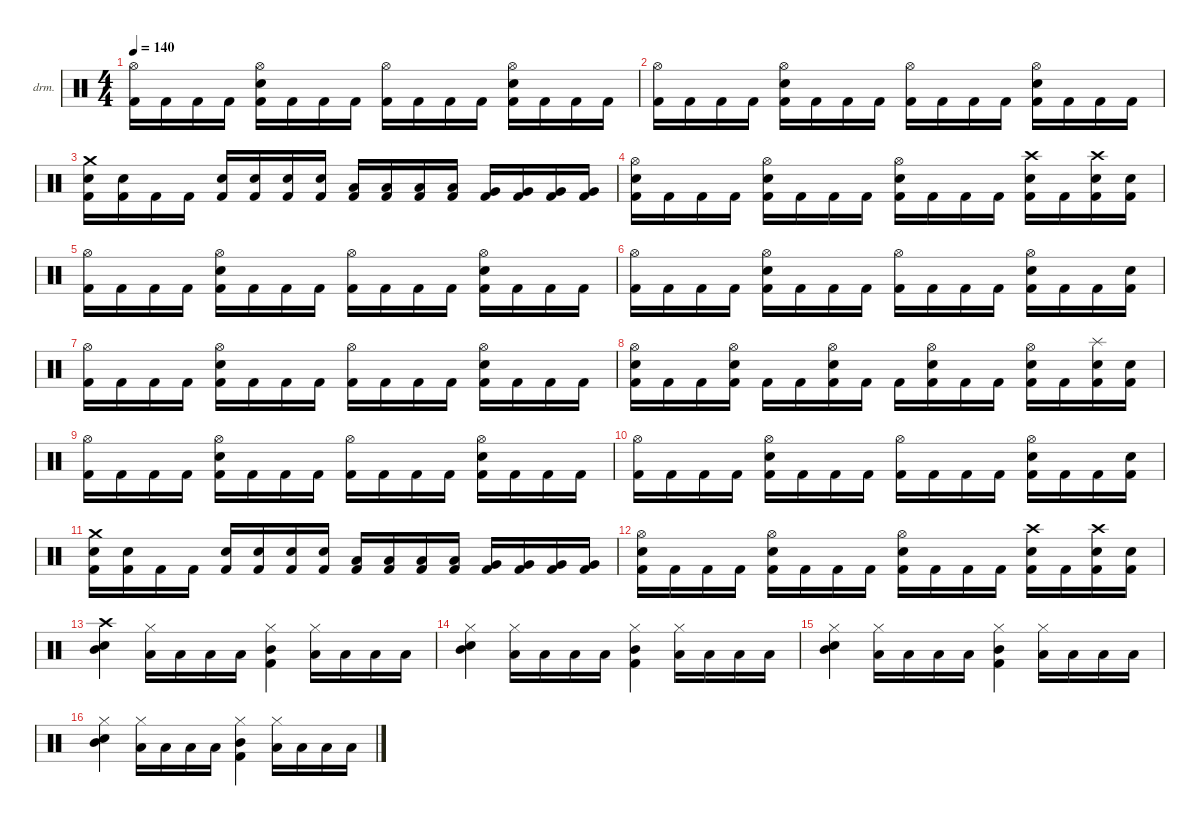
\defaultSystemsLayout 4
\hideDynamics
\bracketExtendMode nobrackets
\firstSystemTrackNameOrientation horizontal
\otherSystemsTrackNameOrientation horizontal
\track ("Drumkit" "drm.") {instrument percussion}
\staff {score}
\articulation defaults
\ts (4 4)
\tempo 140
\clef neutral
\ks c
("Hi-Hat (open)" "Kick (hit) 2").16{dy ff} "Kick (hit) 2".16 "Kick (hit) 2".16 "Kick (hit) 2".16 ("Hi-Hat (open)" "Snare (hit) 2" "Kick (hit) 2").16 "Kick (hit) 2".16 "Kick (hit) 2".16 "Kick (hit) 2".16 ("Hi-Hat (open)" "Kick (hit) 2").16 "Kick (hit) 2".16 "Kick (hit) 2".16 "Kick (hit) 2".16 ("Hi-Hat (open)" "Snare (hit) 2" "Kick (hit) 2").16 "Kick (hit) 2".16 "Kick (hit) 2".16 "Kick (hit) 2".16 |
("Hi-Hat (open)" "Kick (hit) 2").16 "Kick (hit) 2".16 "Kick (hit) 2".16 "Kick (hit) 2".16 ("Hi-Hat (open)" "Snare (hit) 2" "Kick (hit) 2").16 "Kick (hit) 2".16 "Kick (hit) 2".16 "Kick (hit) 2".16 ("Hi-Hat (open)" "Kick (hit) 2").16 "Kick (hit) 2".16 "Kick (hit) 2".16 "Kick (hit) 2".16 ("Hi-Hat (open)" "Snare (hit) 2" "Kick (hit) 2").16 "Kick (hit) 2".16 "Kick (hit) 2".16 "Kick (hit) 2".16 |
("Crash medium (hit)" "Snare (hit) 2" "Kick (hit) 2").16{dy mf} ("Snare (hit) 2" "Kick (hit) 2").16 "Kick (hit) 2".16 "Kick (hit) 2".16 ("Snare (hit) 2" "Kick (hit) 2").16 ("Snare (hit) 2" "Kick (hit) 2").16 ("Snare (hit) 2" "Kick (hit) 2").16 ("Snare (hit) 2" "Kick (hit) 2").16 ("Low Tom (hit)" "Kick (hit) 2").16 ("Low Tom (hit)" "Kick (hit) 2").16 ("Low Tom (hit)" "Kick (hit) 2").16 ("Low Tom (hit)" "Kick (hit) 2").16 ("Very Low Tom (hit)" "Kick (hit) 2").16 ("Very Low Tom (hit)" "Kick (hit) 2").16 ("Very Low Tom (hit)" "Kick (hit) 2").16 ("Very Low Tom (hit)" "Kick (hit) 2").16 |
("Hi-Hat (open)" "Snare (hit) 2" "Kick (hit) 2").16 "Kick (hit) 2".16 "Kick (hit) 2".16 "Kick (hit) 2".16 ("Hi-Hat (open)" "Snare (hit) 2" "Kick (hit) 2").16 "Kick (hit) 2".16 "Kick (hit) 2".16 "Kick (hit) 2".16 ("Hi-Hat (open)" "Snare (hit) 2" "Kick (hit) 2").16 "Kick (hit) 2".16 "Kick (hit) 2".16 "Kick (hit) 2".16 ("Crash high (hit)" "Snare (hit) 2" "Kick (hit) 2").16 "Kick (hit) 2".16 ("Crash high (hit)" "Snare (hit) 2" "Kick (hit) 2").16 ("Snare (hit) 2" "Kick (hit) 2").16 |
("Hi-Hat (open)" "Kick (hit) 2").16{dy ff} "Kick (hit) 2".16 "Kick (hit) 2".16 "Kick (hit) 2".16 ("Hi-Hat (open)" "Snare (hit) 2" "Kick (hit) 2").16 "Kick (hit) 2".16 "Kick (hit) 2".16 "Kick (hit) 2".16 ("Hi-Hat (open)" "Kick (hit) 2").16 "Kick (hit) 2".16 "Kick (hit) 2".16 "Kick (hit) 2".16 ("Hi-Hat (open)" "Snare (hit) 2" "Kick (hit) 2").16 "Kick (hit) 2".16 "Kick (hit) 2".16 "Kick (hit) 2".16 |
("Hi-Hat (open)" "Kick (hit) 2").16 "Kick (hit) 2".16 "Kick (hit) 2".16 "Kick (hit) 2".16 ("Hi-Hat (open)" "Snare (hit) 2" "Kick (hit) 2").16 "Kick (hit) 2".16 "Kick (hit) 2".16 "Kick (hit) 2".16 ("Hi-Hat (open)" "Kick (hit) 2").16 "Kick (hit) 2".16 "Kick (hit) 2".16 "Kick (hit) 2".16 ("Hi-Hat (open)" "Snare (hit) 2" "Kick (hit) 2").16 "Kick (hit) 2".16 "Kick (hit) 2".16 ("Snare (hit) 2" "Kick (hit) 2").16 |
("Hi-Hat (open)" "Kick (hit) 2").16 "Kick (hit) 2".16 "Kick (hit) 2".16 "Kick (hit) 2".16 ("Hi-Hat (open)" "Snare (hit) 2" "Kick (hit) 2").16 "Kick (hit) 2".16 "Kick (hit) 2".16 "Kick (hit) 2".16 ("Hi-Hat (open)" "Kick (hit) 2").16 "Kick (hit) 2".16 "Kick (hit) 2".16 "Kick (hit) 2".16 ("Hi-Hat (open)" "Snare (hit) 2" "Kick (hit) 2").16 "Kick (hit) 2".16 "Kick (hit) 2".16 "Kick (hit) 2".16 |
("Hi-Hat (open)" "Snare (hit) 2" "Kick (hit) 2").16 "Kick (hit) 2".16 "Kick (hit) 2".16 ("Hi-Hat (open)" "Snare (hit) 2" "Kick (hit) 2").16 "Kick (hit) 2".16 "Kick (hit) 2".16 ("Hi-Hat (open)" "Snare (hit) 2" "Kick (hit) 2").16 "Kick (hit) 2".16 "Kick (hit) 2".16 ("Hi-Hat (open)" "Snare (hit) 2" "Kick (hit) 2").16 "Kick (hit) 2".16 "Kick (hit) 2".16 ("Hi-Hat (open)" "Snare (hit) 2" "Kick (hit) 2").16 "Kick (hit) 2".16 ("Splash (hit)" "Snare (hit) 2" "Kick (hit) 2").16 ("Snare (hit) 2" "Kick (hit) 2").16 |
("Hi-Hat (open)" "Kick (hit) 2").16 "Kick (hit) 2".16 "Kick (hit) 2".16 "Kick (hit) 2".16 ("Hi-Hat (open)" "Snare (hit) 2" "Kick (hit) 2").16 "Kick (hit) 2".16 "Kick (hit) 2".16 "Kick (hit) 2".16 ("Hi-Hat (open)" "Kick (hit) 2").16 "Kick (hit) 2".16 "Kick (hit) 2".16 "Kick (hit) 2".16 ("Hi-Hat (open)" "Snare (hit) 2" "Kick (hit) 2").16 "Kick (hit) 2".16 "Kick (hit) 2".16 "Kick (hit) 2".16 |
("Hi-Hat (open)" "Kick (hit) 2").16 "Kick (hit) 2".16 "Kick (hit) 2".16 "Kick (hit) 2".16 ("Hi-Hat (open)" "Snare (hit) 2" "Kick (hit) 2").16 "Kick (hit) 2".16 "Kick (hit) 2".16 "Kick (hit) 2".16 ("Hi-Hat (open)" "Kick (hit) 2").16 "Kick (hit) 2".16 "Kick (hit) 2".16 "Kick (hit) 2".16 ("Hi-Hat (open)" "Snare (hit) 2" "Kick (hit) 2").16 "Kick (hit) 2".16 "Kick (hit) 2".16 ("Snare (hit) 2" "Kick (hit) 2").16 |
("Crash medium (hit)" "Snare (hit) 2" "Kick (hit) 2").16{dy mf} ("Snare (hit) 2" "Kick (hit) 2").16 "Kick (hit) 2".16 "Kick (hit) 2".16 ("Snare (hit) 2" "Kick (hit) 2").16 ("Snare (hit) 2" "Kick (hit) 2").16 ("Snare (hit) 2" "Kick (hit) 2").16 ("Snare (hit) 2" "Kick (hit) 2").16 ("Low Tom (hit)" "Kick (hit) 2").16 ("Low Tom (hit)" "Kick (hit) 2").16 ("Low Tom (hit)" "Kick (hit) 2").16 ("Low Tom (hit)" "Kick (hit) 2").16 ("Very Low Tom (hit)" "Kick (hit) 2").16 ("Very Low Tom (hit)" "Kick (hit) 2").16 ("Very Low Tom (hit)" "Kick (hit) 2").16 ("Very Low Tom (hit)" "Kick (hit) 2").16 |
("Hi-Hat (open)" "Snare (hit) 2" "Kick (hit) 2").16 "Kick (hit) 2".16 "Kick (hit) 2".16 "Kick (hit) 2".16 ("Hi-Hat (open)" "Snare (hit) 2" "Kick (hit) 2").16 "Kick (hit) 2".16 "Kick (hit) 2".16 "Kick (hit) 2".16 ("Hi-Hat (open)" "Snare (hit) 2" "Kick (hit) 2").16 "Kick (hit) 2".16 "Kick (hit) 2".16 "Kick (hit) 2".16 ("Crash high (hit)" "Snare (hit) 2" "Kick (hit) 2").16 "Kick (hit) 2".16 ("Crash high (hit)" "Snare (hit) 2" "Kick (hit) 2").16 ("Snare (hit) 2" "Kick (hit) 2").16 |
("Snare (hit) 2" "Mid Tom (hit)" "Crash high (hit)").4{dy fff} ("Low Tom (hit)" "Hi-Hat (closed)").16 "Low Tom (hit)".16 "Low Tom (hit)".16 "Low Tom (hit)".16 ("Mid Tom (hit)" "Kick (hit) 2" "Hi-Hat (closed)").4 ("Low Tom (hit)" "Hi-Hat (closed)").16 "Low Tom (hit)".16 "Low Tom (hit)".16 "Low Tom (hit)".16 |
("Snare (hit) 2" "Mid Tom (hit)" "Hi-Hat (closed)").4 ("Low Tom (hit)" "Hi-Hat (closed)").16 "Low Tom (hit)".16 "Low Tom (hit)".16 "Low Tom (hit)".16 ("Mid Tom (hit)" "Kick (hit) 2" "Hi-Hat (closed)").4 ("Low Tom (hit)" "Hi-Hat (closed)").16 "Low Tom (hit)".16 "Low Tom (hit)".16 "Low Tom (hit)".16 |
("Snare (hit) 2" "Mid Tom (hit)" "Hi-Hat (closed)").4 ("Low Tom (hit)" "Hi-Hat (closed)").16 "Low Tom (hit)".16 "Low Tom (hit)".16 "Low Tom (hit)".16 ("Mid Tom (hit)" "Kick (hit) 2" "Hi-Hat (closed)").4 ("Low Tom (hit)" "Hi-Hat (closed)").16 "Low Tom (hit)".16 "Low Tom (hit)".16 "Low Tom (hit)".16 |
("Snare (hit) 2" "Mid Tom (hit)" "Hi-Hat (closed)").4 ("Low Tom (hit)" "Hi-Hat (closed)").16 "Low Tom (hit)".16 "Low Tom (hit)".16 "Low Tom (hit)".16 ("Mid Tom (hit)" "Kick (hit) 2" "Hi-Hat (closed)").4 ("Low Tom (hit)" "Hi-Hat (closed)").16 "Low Tom (hit)".16 "Low Tom (hit)".16 "Low Tom (hit)".16
